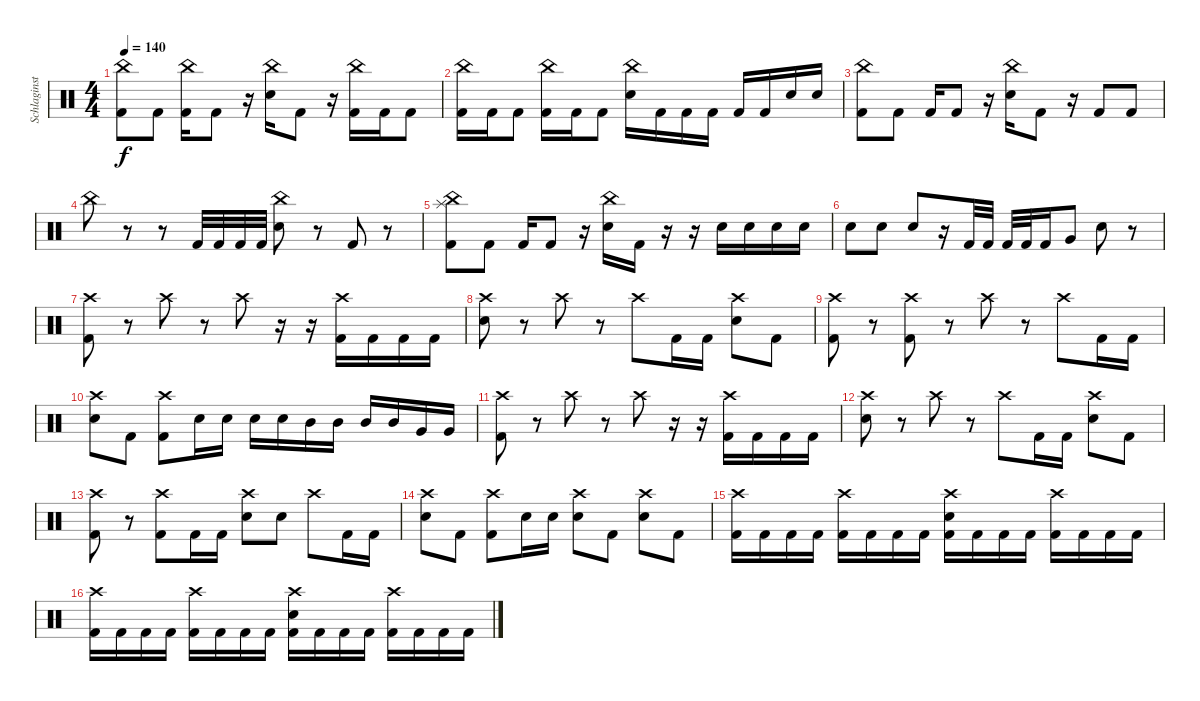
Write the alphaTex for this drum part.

\track ("Schlaginstrumente - Auswahl" "Schlaginst") {instrument percussion}
\staff {score}
\articulation defaults
\ts (4 4)
\tempo 140
\clef neutral
\ks c
("China (hit)" "Kick (hit) 2").8{dy f} "Kick (hit) 2".8 ("China (hit)" "Kick (hit) 2").16 "Kick (hit) 2".8 r.16 ("China (hit)" "Electric Snare (hit)").16 "Kick (hit) 2".8 r.16 ("China (hit)" "Kick (hit) 2").16 "Kick (hit) 2".16 "Kick (hit) 2".8 |
("China (hit)" "Kick (hit) 2").16 "Kick (hit) 2".16 "Kick (hit) 2".8 ("China (hit)" "Kick (hit) 2").16 "Kick (hit) 2".16 "Kick (hit) 2".8 ("China (hit)" "Electric Snare (hit)").16 "Kick (hit) 2".16 "Kick (hit) 2".16 "Kick (hit) 2".16 "Kick (hit) 2".16 "Kick (hit) 2".16 "Electric Snare (hit)".16 "Electric Snare (hit)".16 |
("China (hit)" "Kick (hit) 2").8 "Kick (hit) 2".8 "Kick (hit) 2".16 "Kick (hit) 2".8 r.16 ("China (hit)" "Electric Snare (hit)").16 "Kick (hit) 2".8 r.16 "Kick (hit) 2".8 "Kick (hit) 2".8 |
"China (hit)".8 r.8 r.8 "Kick (hit) 2".32 "Kick (hit) 2".32 "Kick (hit) 2".32 "Kick (hit) 2".32 ("China (hit)" "Electric Snare (hit)").8 r.8 "Kick (hit) 2".8 r.8 |
("Splash (hit)" "China (hit)" "Kick (hit) 2").8 "Kick (hit) 2".8 "Kick (hit) 2".16 "Kick (hit) 2".8 r.16 ("China (hit)" "Electric Snare (hit)").16 "Kick (hit) 2".16 r.16 r.16 "Electric Snare (hit)".16 "Electric Snare (hit)".16 "Electric Snare (hit)".16 "Electric Snare (hit)".16 |
"Electric Snare (hit)".8 "Electric Snare (hit)".8 "Electric Snare (hit)".8 r.16 "Kick (hit) 2".32 "Kick (hit) 2".32 "Kick (hit) 2".32 "Kick (hit) 2".32 "Kick (hit) 2".16 "Very Low Tom (hit)".8 "Electric Snare (hit)".8 r.8 |
("Crash high (hit)" "Kick (hit) 2").8 r.8 "Crash high (hit)".8 r.8 "Crash high (hit)".8 r.16 r.16 ("Crash high (hit)" "Kick (hit) 2").16 "Kick (hit) 2".16 "Kick (hit) 2".16 "Kick (hit) 2".16 |
("Crash high (hit)" "Electric Snare (hit)").8 r.8 "Crash high (hit)".8 r.8 "Crash high (hit)".8 "Kick (hit) 2".16 "Kick (hit) 2".16 ("Crash high (hit)" "Electric Snare (hit)").8 "Kick (hit) 2".8 |
("Crash high (hit)" "Kick (hit) 2").8 r.8 ("Crash high (hit)" "Kick (hit) 2").8 r.8 "Crash high (hit)".8 r.8 "Crash high (hit)".8 "Kick (hit) 2".16 "Kick (hit) 2".16 |
("Crash high (hit)" "Electric Snare (hit)").8 "Kick (hit) 2".8 ("Crash high (hit)" "Kick (hit) 2").8 "Electric Snare (hit)".16 "Electric Snare (hit)".16 "Electric Snare (hit)".16 "Electric Snare (hit)".16 "Mid Tom (hit)".16 "Mid Tom (hit)".16 "Mid Tom (hit)".16 "Mid Tom (hit)".16 "Very Low Tom (hit)".16 "Very Low Tom (hit)".16 |
("Crash high (hit)" "Kick (hit) 2").8 r.8 "Crash high (hit)".8 r.8 "Crash high (hit)".8 r.16 r.16 ("Crash high (hit)" "Kick (hit) 2").16 "Kick (hit) 2".16 "Kick (hit) 2".16 "Kick (hit) 2".16 |
("Crash high (hit)" "Electric Snare (hit)").8 r.8 "Crash high (hit)".8 r.8 "Crash high (hit)".8 "Kick (hit) 2".16 "Kick (hit) 2".16 ("Crash high (hit)" "Electric Snare (hit)").8 "Kick (hit) 2".8 |
("Crash high (hit)" "Kick (hit) 2").8 r.8 ("Crash high (hit)" "Kick (hit) 2").8 "Kick (hit) 2".16 "Kick (hit) 2".16 ("Crash high (hit)" "Electric Snare (hit)").8 "Electric Snare (hit)".8 "Crash high (hit)".8 "Kick (hit) 2".16 "Kick (hit) 2".16 |
("Crash high (hit)" "Electric Snare (hit)").8 "Kick (hit) 2".8 ("Crash high (hit)" "Kick (hit) 2").8 "Electric Snare (hit)".16 "Electric Snare (hit)".16 ("Crash high (hit)" "Electric Snare (hit)").8 "Kick (hit) 2".8 ("Crash high (hit)" "Electric Snare (hit)").8 "Kick (hit) 2".8 |
("Crash high (hit)" "Kick (hit) 2").16 "Kick (hit) 2".16 "Kick (hit) 2".16 "Kick (hit) 2".16 ("Crash high (hit)" "Kick (hit) 2").16 "Kick (hit) 2".16 "Kick (hit) 2".16 "Kick (hit) 2".16 ("Electric Snare (hit)" "Crash high (hit)" "Kick (hit) 2").16 "Kick (hit) 2".16 "Kick (hit) 2".16 "Kick (hit) 2".16 ("Crash high (hit)" "Kick (hit) 2").16 "Kick (hit) 2".16 "Kick (hit) 2".16 "Kick (hit) 2".16 |
("Crash high (hit)" "Kick (hit) 2").16 "Kick (hit) 2".16 "Kick (hit) 2".16 "Kick (hit) 2".16 ("Crash high (hit)" "Kick (hit) 2").16 "Kick (hit) 2".16 "Kick (hit) 2".16 "Kick (hit) 2".16 ("Electric Snare (hit)" "Crash high (hit)" "Kick (hit) 2").16 "Kick (hit) 2".16 "Kick (hit) 2".16 "Kick (hit) 2".16 ("Crash high (hit)" "Kick (hit) 2").16 "Kick (hit) 2".16 "Kick (hit) 2".16 "Kick (hit) 2".16
